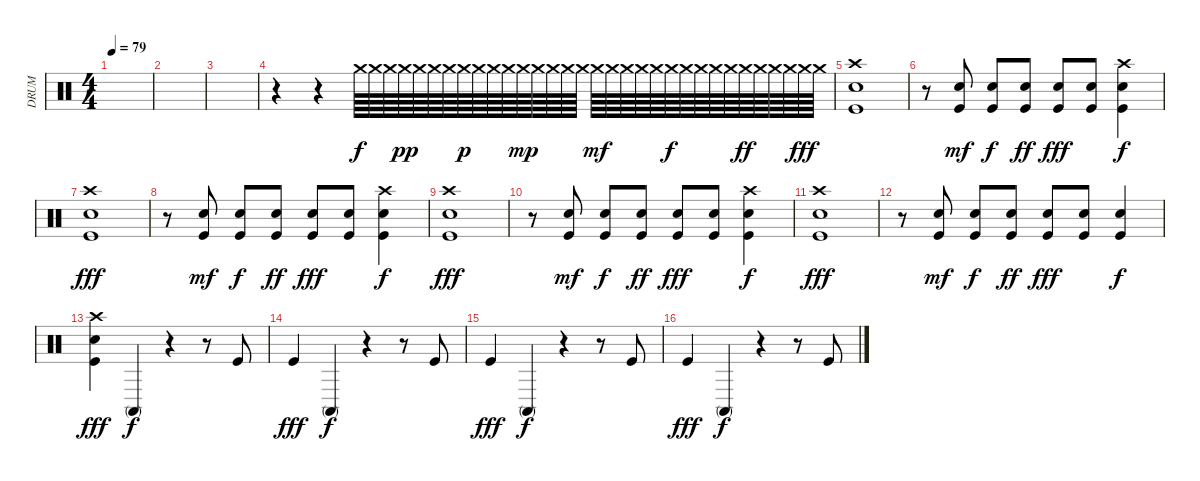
\track ("DRUM" "DRUM") {instrument percussion}
\staff {score}
\articulation defaults
\ts (4 4)
\tempo 79
\clef neutral
\ks c
|
|
|
r.4 r.4 "Crash medium (hit)".64 "Crash medium (hit)".64 "Crash medium (hit)".64 "Crash medium (hit)".64{dy pp} "Crash medium (hit)".64 "Crash medium (hit)".64 "Crash medium (hit)".64 "Crash medium (hit)".64{dy p} "Crash medium (hit)".64 "Crash medium (hit)".64 "Crash medium (hit)".64 "Crash medium (hit)".64{dy mp} "Crash medium (hit)".64 "Crash medium (hit)".64 "Crash medium (hit)".64 "Crash medium (hit)".64 "Crash medium (hit)".64{dy mf} "Crash medium (hit)".64 "Crash medium (hit)".64 "Crash medium (hit)".64 "Crash medium (hit)".64 "Crash medium (hit)".64{dy f} "Crash medium (hit)".64 "Crash medium (hit)".64 "Crash medium (hit)".64 "Crash medium (hit)".64 "Crash medium (hit)".64{dy ff} "Crash medium (hit)".64 "Crash medium (hit)".64 "Crash medium (hit)".64 "Crash medium (hit)".64{dy fff} "Crash medium (hit)".64 |
("Crash high (hit)" "Electric Snare (hit)" "Kick (hit)").1{volume 14} |
r.8 ("Electric Snare (hit)" "Kick (hit)").8{dy mf} ("Electric Snare (hit)" "Kick (hit)").8{dy f} ("Electric Snare (hit)" "Kick (hit)").8{dy ff} ("Electric Snare (hit)" "Kick (hit)").8{dy fff} ("Electric Snare (hit)" "Kick (hit)").8 ("Crash high (hit)" "Electric Snare (hit)" "Kick (hit)").4{dy f} |
("Crash high (hit)" "Electric Snare (hit)" "Kick (hit)").1{dy fff} |
r.8 ("Electric Snare (hit)" "Kick (hit)").8{dy mf} ("Electric Snare (hit)" "Kick (hit)").8{dy f} ("Electric Snare (hit)" "Kick (hit)").8{dy ff} ("Electric Snare (hit)" "Kick (hit)").8{dy fff} ("Electric Snare (hit)" "Kick (hit)").8 ("Crash high (hit)" "Electric Snare (hit)" "Kick (hit)").4{dy f} |
("Crash high (hit)" "Electric Snare (hit)" "Kick (hit)").1{dy fff} |
r.8 ("Electric Snare (hit)" "Kick (hit)").8{dy mf} ("Electric Snare (hit)" "Kick (hit)").8{dy f} ("Electric Snare (hit)" "Kick (hit)").8{dy ff} ("Electric Snare (hit)" "Kick (hit)").8{dy fff} ("Electric Snare (hit)" "Kick (hit)").8 ("Crash high (hit)" "Electric Snare (hit)" "Kick (hit)").4{dy f} |
("Crash high (hit)" "Electric Snare (hit)" "Kick (hit)").1{dy fff} |
r.8 ("Electric Snare (hit)" "Kick (hit)").8{dy mf} ("Electric Snare (hit)" "Kick (hit)").8{dy f} ("Electric Snare (hit)" "Kick (hit)").8{dy ff} ("Electric Snare (hit)" "Kick (hit)").8{dy fff} ("Electric Snare (hit)" "Kick (hit)").8 ("Electric Snare (hit)" "Kick (hit)").4{dy f} |
("Crash high (hit)" "Electric Snare (hit)" "Kick (hit)").4{dy fff} "Conga high (mute)".4{dy f} r.4 r.8 "Kick (hit)".8 |
"Kick (hit)".4{dy fff} "Conga high (mute)".4{dy f} r.4 r.8 "Kick (hit)".8 |
"Kick (hit)".4{dy fff} "Conga high (mute)".4{dy f} r.4 r.8 "Kick (hit)".8 |
"Kick (hit)".4{dy fff} "Conga high (mute)".4{dy f} r.4 r.8 "Kick (hit)".8
